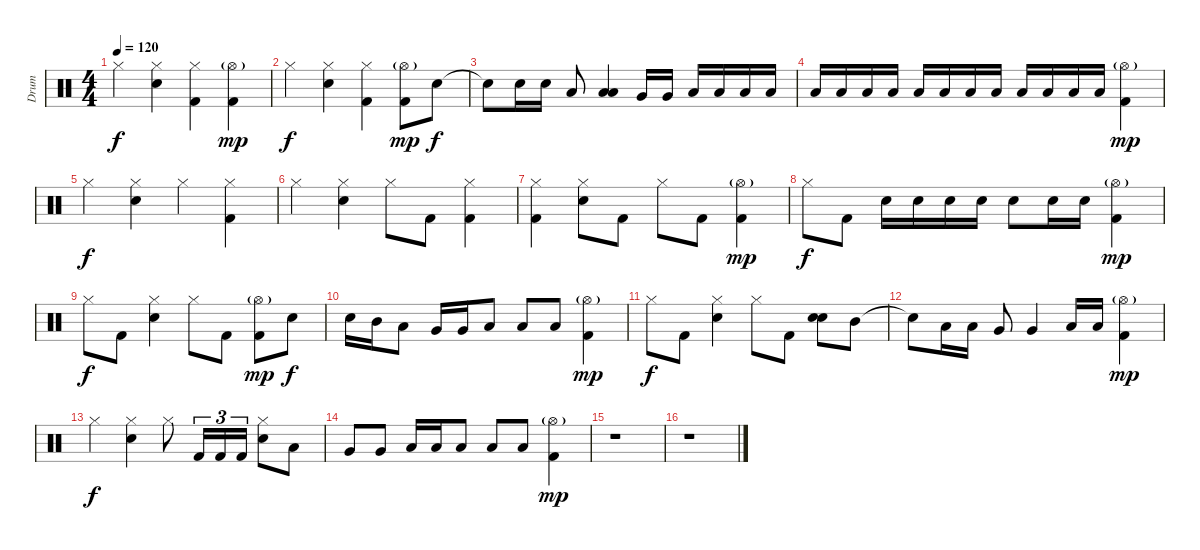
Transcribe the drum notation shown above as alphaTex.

\track ("Drum" "Drum") {instrument percussion}
\staff {score}
\articulation defaults
\ts (4 4)
\tempo 120
\clef neutral
\ks c "Hi-Hat (closed)".4{dy f}
("Hi-Hat (closed)" "Electric Snare (hit)").4 ("Hi-Hat (closed)" "Kick (hit) 2").4 ("Hi-Hat (open)"{g} "Kick (hit) 2").4{dy mp} |
"Hi-Hat (closed)".4{dy f} ("Hi-Hat (closed)" "Electric Snare (hit)").4 ("Hi-Hat (closed)" "Kick (hit) 2").4 ("Hi-Hat (open)"{g} "Kick (hit) 2").8{dy mp} "Electric Snare (hit)".8{dy f} |
"Snare (hit)"{t}.8 "Electric Snare (hit)".16 "Electric Snare (hit)".16 "Low Tom (hit)".8 ("Low Tom (hit)" "Low Tom (hit)").4{bu 120} "Very Low Tom (hit)".16 "Very Low Tom (hit)".16 "Low Floor Tom (hit)".16 "Low Floor Tom (hit)".16 "Low Floor Tom (hit)".16 "Low Floor Tom (hit)".16 |
"Low Floor Tom (hit)".16 "Low Floor Tom (hit)".16 "Low Floor Tom (hit)".16 "Low Floor Tom (hit)".16 "Low Floor Tom (hit)".16 "Low Floor Tom (hit)".16 "Low Floor Tom (hit)".16 "Low Floor Tom (hit)".16 "Low Floor Tom (hit)".16 "Low Floor Tom (hit)".16 "Low Floor Tom (hit)".16 "Low Floor Tom (hit)".16 ("Hi-Hat (open)"{g} "Kick (hit) 2").4{dy mp} |
"Hi-Hat (closed)".4{dy f} ("Hi-Hat (closed)" "Electric Snare (hit)").4 "Hi-Hat (closed)".4 ("Hi-Hat (closed)" "Kick (hit) 2").4 |
"Hi-Hat (closed)".4 ("Hi-Hat (closed)" "Electric Snare (hit)").4 "Hi-Hat (closed)".8 "Kick (hit) 2".8 ("Hi-Hat (closed)" "Kick (hit) 2").4 |
("Hi-Hat (closed)" "Kick (hit) 2").4 ("Hi-Hat (closed)" "Electric Snare (hit)").8 "Kick (hit) 2".8 "Hi-Hat (closed)".8 "Kick (hit) 2".8 ("Hi-Hat (open)"{g} "Kick (hit) 2").4{dy mp} |
"Hi-Hat (closed)".8{dy f} "Kick (hit) 2".8 "Electric Snare (hit)".16 "Electric Snare (hit)".16 "Electric Snare (hit)".16 "Electric Snare (hit)".16 "Electric Snare (hit)".8 "Electric Snare (hit)".16 "Electric Snare (hit)".16 ("Hi-Hat (open)"{g} "Kick (hit) 2").4{dy mp} |
"Hi-Hat (closed)".8{dy f} "Kick (hit) 2".8 ("Hi-Hat (closed)" "Electric Snare (hit)").4 "Hi-Hat (closed)".8 "Kick (hit) 2".8 ("Hi-Hat (open)"{g} "Kick (hit) 2").8{dy mp} "Electric Snare (hit)".8{dy f} |
"Electric Snare (hit)".16 "Mid Tom (hit)".16 "Low Tom (hit)".8 "Very Low Tom (hit)".16 "Very Low Tom (hit)".16 "Low Floor Tom (hit)".8 "Low Floor Tom (hit)".8 "Low Floor Tom (hit)".8 ("Hi-Hat (open)"{g} "Kick (hit) 2").4{dy mp} |
"Hi-Hat (closed)".8{dy f} "Kick (hit) 2".8 ("Hi-Hat (closed)" "Electric Snare (hit)").4 "Hi-Hat (closed)".8 "Kick (hit) 2".8 ("Electric Snare (hit)" "Electric Snare (hit)").8{bd 120} "Mid Tom (hit)".8 |
"Snare (hit)"{t}.8 "Low Tom (hit)".16 "Low Tom (hit)".16 "Very Low Tom (hit)".8 "Very Low Tom (hit)".4 "Low Floor Tom (hit)".16 "Low Floor Tom (hit)".16 ("Hi-Hat (open)"{g} "Kick (hit) 2").4{dy mp} |
"Hi-Hat (closed)".4{dy f} ("Hi-Hat (closed)" "Electric Snare (hit)").4 "Hi-Hat (closed)".8 "Kick (hit) 2".16{tu (3 2)} "Kick (hit) 2".16{tu (3 2)} "Kick (hit) 2".16{tu (3 2)} ("Hi-Hat (closed)" "Electric Snare (hit)").8 "Low Tom (hit)".8 |
"Very Low Tom (hit)".8 "Very Low Tom (hit)".8 "Low Floor Tom (hit)".16 "Low Floor Tom (hit)".16 "Low Floor Tom (hit)".8 "Low Floor Tom (hit)".8 "Low Floor Tom (hit)".8 ("Hi-Hat (open)"{g} "Kick (hit) 2").4{dy mp} |
r.1 |
r.1
